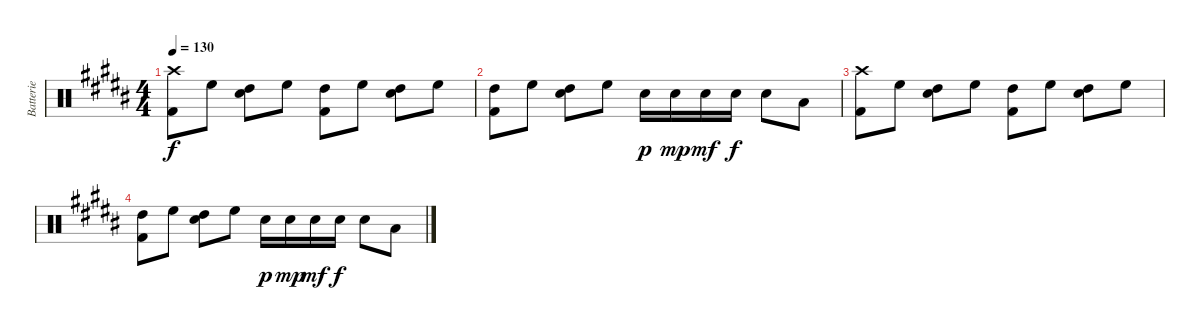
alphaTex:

\track ("Batterie" "Batterie") {instrument percussion}
\staff {score}
\articulation defaults
\ts (4 4)
\tempo 130
\clef neutral
\ks b
("Crash high (hit)" "Kick (hit) 2").8{dy f} "High Floor Tom (hit)".8 ("High Tom (hit)" "Snare (hit) 2").8 "High Floor Tom (hit)".8 ("High Tom (hit)" "Kick (hit) 2").8 "High Floor Tom (hit)".8 ("High Tom (hit)" "Snare (hit) 2").8 "High Floor Tom (hit)".8 |
("High Tom (hit)" "Kick (hit) 2").8 "High Floor Tom (hit)".8 ("High Tom (hit)" "Snare (hit) 2").8 "High Floor Tom (hit)".8 "Snare (hit) 2".16{dy p} "Snare (hit) 2".16{dy mp} "Snare (hit) 2".16{dy mf} "Snare (hit) 2".16{dy f} "Snare (hit) 2".8 "Low Tom (hit)".8 |
("Crash high (hit)" "Kick (hit) 2").8 "High Floor Tom (hit)".8 ("High Tom (hit)" "Snare (hit) 2").8 "High Floor Tom (hit)".8 ("High Tom (hit)" "Kick (hit) 2").8 "High Floor Tom (hit)".8 ("High Tom (hit)" "Snare (hit) 2").8 "High Floor Tom (hit)".8 |
("High Tom (hit)" "Kick (hit) 2").8 "High Floor Tom (hit)".8 ("High Tom (hit)" "Snare (hit) 2").8 "High Floor Tom (hit)".8 "Snare (hit) 2".16{dy p} "Snare (hit) 2".16{dy mp} "Snare (hit) 2".16{dy mf} "Snare (hit) 2".16{dy f} "Snare (hit) 2".8 "Low Tom (hit)".8
